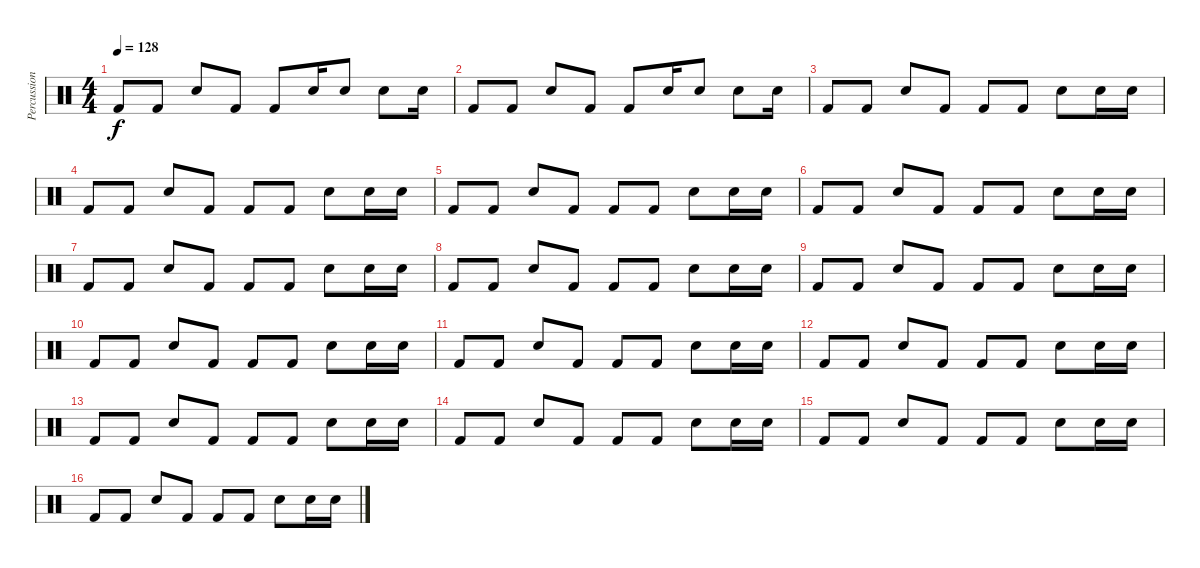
\track ("Percussion" "Percussion") {instrument percussion}
\staff {score}
\articulation defaults
\ts (4 4)
\tempo 128
\clef neutral
\ks c "Kick (hit) 2".8{dy f} "Kick (hit) 2".8 "Snare (hit) 2".8 "Kick (hit) 2".8 "Kick (hit) 2".8 "Snare (hit) 2".16 "Snare (hit) 2".8 "Snare (hit) 2".8 "Snare (hit) 2".16
|
"Kick (hit) 2".8 "Kick (hit) 2".8 "Snare (hit) 2".8 "Kick (hit) 2".8 "Kick (hit) 2".8 "Snare (hit) 2".16 "Snare (hit) 2".8 "Snare (hit) 2".8 "Snare (hit) 2".16 |
"Kick (hit) 2".8 "Kick (hit) 2".8 "Snare (hit) 2".8 "Kick (hit) 2".8 "Kick (hit) 2".8 "Kick (hit) 2".8 "Snare (hit) 2".8 "Snare (hit) 2".16 "Snare (hit) 2".16 |
"Kick (hit) 2".8 "Kick (hit) 2".8 "Snare (hit) 2".8 "Kick (hit) 2".8 "Kick (hit) 2".8 "Kick (hit) 2".8 "Snare (hit) 2".8 "Snare (hit) 2".16 "Snare (hit) 2".16 |
"Kick (hit) 2".8 "Kick (hit) 2".8 "Snare (hit) 2".8 "Kick (hit) 2".8 "Kick (hit) 2".8 "Kick (hit) 2".8 "Snare (hit) 2".8 "Snare (hit) 2".16 "Snare (hit) 2".16 |
"Kick (hit) 2".8 "Kick (hit) 2".8 "Snare (hit) 2".8 "Kick (hit) 2".8 "Kick (hit) 2".8 "Kick (hit) 2".8 "Snare (hit) 2".8 "Snare (hit) 2".16 "Snare (hit) 2".16 |
"Kick (hit) 2".8 "Kick (hit) 2".8 "Snare (hit) 2".8 "Kick (hit) 2".8 "Kick (hit) 2".8 "Kick (hit) 2".8 "Snare (hit) 2".8 "Snare (hit) 2".16 "Snare (hit) 2".16 |
"Kick (hit) 2".8 "Kick (hit) 2".8 "Snare (hit) 2".8 "Kick (hit) 2".8 "Kick (hit) 2".8 "Kick (hit) 2".8 "Snare (hit) 2".8 "Snare (hit) 2".16 "Snare (hit) 2".16 |
"Kick (hit) 2".8 "Kick (hit) 2".8 "Snare (hit) 2".8 "Kick (hit) 2".8 "Kick (hit) 2".8 "Kick (hit) 2".8 "Snare (hit) 2".8 "Snare (hit) 2".16 "Snare (hit) 2".16 |
"Kick (hit) 2".8 "Kick (hit) 2".8 "Snare (hit) 2".8 "Kick (hit) 2".8 "Kick (hit) 2".8 "Kick (hit) 2".8 "Snare (hit) 2".8 "Snare (hit) 2".16 "Snare (hit) 2".16 |
"Kick (hit) 2".8 "Kick (hit) 2".8 "Snare (hit) 2".8 "Kick (hit) 2".8 "Kick (hit) 2".8 "Kick (hit) 2".8 "Snare (hit) 2".8 "Snare (hit) 2".16 "Snare (hit) 2".16 |
"Kick (hit) 2".8 "Kick (hit) 2".8 "Snare (hit) 2".8 "Kick (hit) 2".8 "Kick (hit) 2".8 "Kick (hit) 2".8 "Snare (hit) 2".8 "Snare (hit) 2".16 "Snare (hit) 2".16 |
"Kick (hit) 2".8 "Kick (hit) 2".8 "Snare (hit) 2".8 "Kick (hit) 2".8 "Kick (hit) 2".8 "Kick (hit) 2".8 "Snare (hit) 2".8 "Snare (hit) 2".16 "Snare (hit) 2".16 |
"Kick (hit) 2".8 "Kick (hit) 2".8 "Snare (hit) 2".8 "Kick (hit) 2".8 "Kick (hit) 2".8 "Kick (hit) 2".8 "Snare (hit) 2".8 "Snare (hit) 2".16 "Snare (hit) 2".16 |
"Kick (hit) 2".8 "Kick (hit) 2".8 "Snare (hit) 2".8 "Kick (hit) 2".8 "Kick (hit) 2".8 "Kick (hit) 2".8 "Snare (hit) 2".8 "Snare (hit) 2".16 "Snare (hit) 2".16 |
"Kick (hit) 2".8 "Kick (hit) 2".8 "Snare (hit) 2".8 "Kick (hit) 2".8 "Kick (hit) 2".8 "Kick (hit) 2".8 "Snare (hit) 2".8 "Snare (hit) 2".16 "Snare (hit) 2".16
